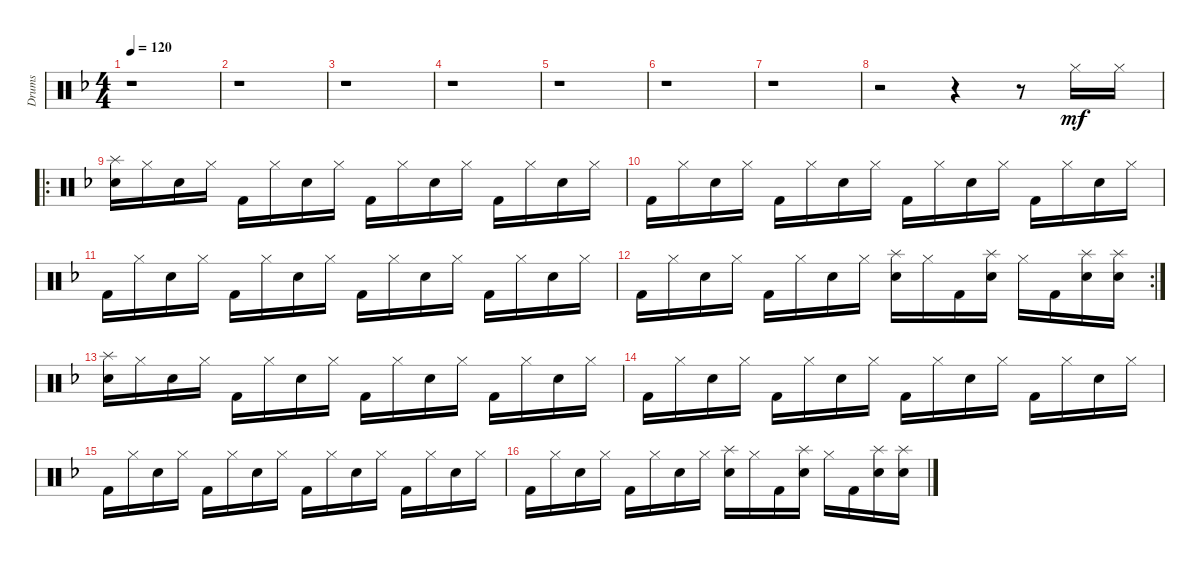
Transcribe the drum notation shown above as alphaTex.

\track ("Drums" "Drums") {instrument percussion}
\staff {score}
\articulation defaults
\ts (4 4)
\section ("" "")
\tempo 120
\clef neutral
\ks dminor
r.1{dy mf} |
r.1 |
r.1 |
r.1 |
r.1 |
r.1 |
r.1 |
r.2 r.4 r.8 "Hi-Hat (closed)".16 "Hi-Hat (closed)".16 |
\ro
\section ("" "")
("Snare (hit) 2" "Splash (hit)").16 "Hi-Hat (closed)".16 "Snare (hit) 2".16 "Hi-Hat (closed)".16 "Kick (hit) 2".16 "Hi-Hat (closed)".16 "Snare (hit) 2".16 "Hi-Hat (closed)".16 "Kick (hit) 2".16 "Hi-Hat (closed)".16 "Snare (hit) 2".16 "Hi-Hat (closed)".16 "Kick (hit) 2".16 "Hi-Hat (closed)".16 "Snare (hit) 2".16 "Hi-Hat (closed)".16 |
"Kick (hit) 2".16 "Hi-Hat (closed)".16 "Snare (hit) 2".16 "Hi-Hat (closed)".16 "Kick (hit) 2".16 "Hi-Hat (closed)".16 "Snare (hit) 2".16 "Hi-Hat (closed)".16 "Kick (hit) 2".16 "Hi-Hat (closed)".16 "Snare (hit) 2".16 "Hi-Hat (closed)".16 "Kick (hit) 2".16 "Hi-Hat (closed)".16 "Snare (hit) 2".16 "Hi-Hat (closed)".16 |
"Kick (hit) 2".16 "Hi-Hat (closed)".16 "Snare (hit) 2".16 "Hi-Hat (closed)".16 "Kick (hit) 2".16 "Hi-Hat (closed)".16 "Snare (hit) 2".16 "Hi-Hat (closed)".16 "Kick (hit) 2".16 "Hi-Hat (closed)".16 "Snare (hit) 2".16 "Hi-Hat (closed)".16 "Kick (hit) 2".16 "Hi-Hat (closed)".16 "Snare (hit) 2".16 "Hi-Hat (closed)".16 |
\rc 2 "Kick (hit) 2".16 "Hi-Hat (closed)".16 "Snare (hit) 2".16 "Hi-Hat (closed)".16 "Kick (hit) 2".16 "Hi-Hat (closed)".16 "Snare (hit) 2".16 "Hi-Hat (closed)".16
("Snare (hit) 2" "Splash (hit)").16 "Hi-Hat (closed)".16 "Kick (hit) 2".16 ("Snare (hit) 2" "Splash (hit)").16 "Hi-Hat (closed)".16 "Kick (hit) 2".16 ("Snare (hit) 2" "Splash (hit)").16 ("Snare (hit) 2" "Splash (hit)").16 |
\section ("" "")
("Snare (hit) 2" "Splash (hit)").16 "Hi-Hat (closed)".16 "Snare (hit) 2".16 "Hi-Hat (closed)".16 "Kick (hit) 2".16 "Hi-Hat (closed)".16 "Snare (hit) 2".16 "Hi-Hat (closed)".16 "Kick (hit) 2".16 "Hi-Hat (closed)".16 "Snare (hit) 2".16 "Hi-Hat (closed)".16 "Kick (hit) 2".16 "Hi-Hat (closed)".16 "Snare (hit) 2".16 "Hi-Hat (closed)".16 |
"Kick (hit) 2".16 "Hi-Hat (closed)".16 "Snare (hit) 2".16 "Hi-Hat (closed)".16 "Kick (hit) 2".16 "Hi-Hat (closed)".16 "Snare (hit) 2".16 "Hi-Hat (closed)".16 "Kick (hit) 2".16 "Hi-Hat (closed)".16 "Snare (hit) 2".16 "Hi-Hat (closed)".16 "Kick (hit) 2".16 "Hi-Hat (closed)".16 "Snare (hit) 2".16 "Hi-Hat (closed)".16 |
"Kick (hit) 2".16 "Hi-Hat (closed)".16 "Snare (hit) 2".16 "Hi-Hat (closed)".16 "Kick (hit) 2".16 "Hi-Hat (closed)".16 "Snare (hit) 2".16 "Hi-Hat (closed)".16 "Kick (hit) 2".16 "Hi-Hat (closed)".16 "Snare (hit) 2".16 "Hi-Hat (closed)".16 "Kick (hit) 2".16 "Hi-Hat (closed)".16 "Snare (hit) 2".16 "Hi-Hat (closed)".16 |
"Kick (hit) 2".16 "Hi-Hat (closed)".16 "Snare (hit) 2".16 "Hi-Hat (closed)".16 "Kick (hit) 2".16 "Hi-Hat (closed)".16 "Snare (hit) 2".16 "Hi-Hat (closed)".16 ("Snare (hit) 2" "Splash (hit)").16 "Hi-Hat (closed)".16 "Kick (hit) 2".16 ("Snare (hit) 2" "Splash (hit)").16 "Hi-Hat (closed)".16 "Kick (hit) 2".16 ("Snare (hit) 2" "Splash (hit)").16 ("Snare (hit) 2" "Splash (hit)").16
